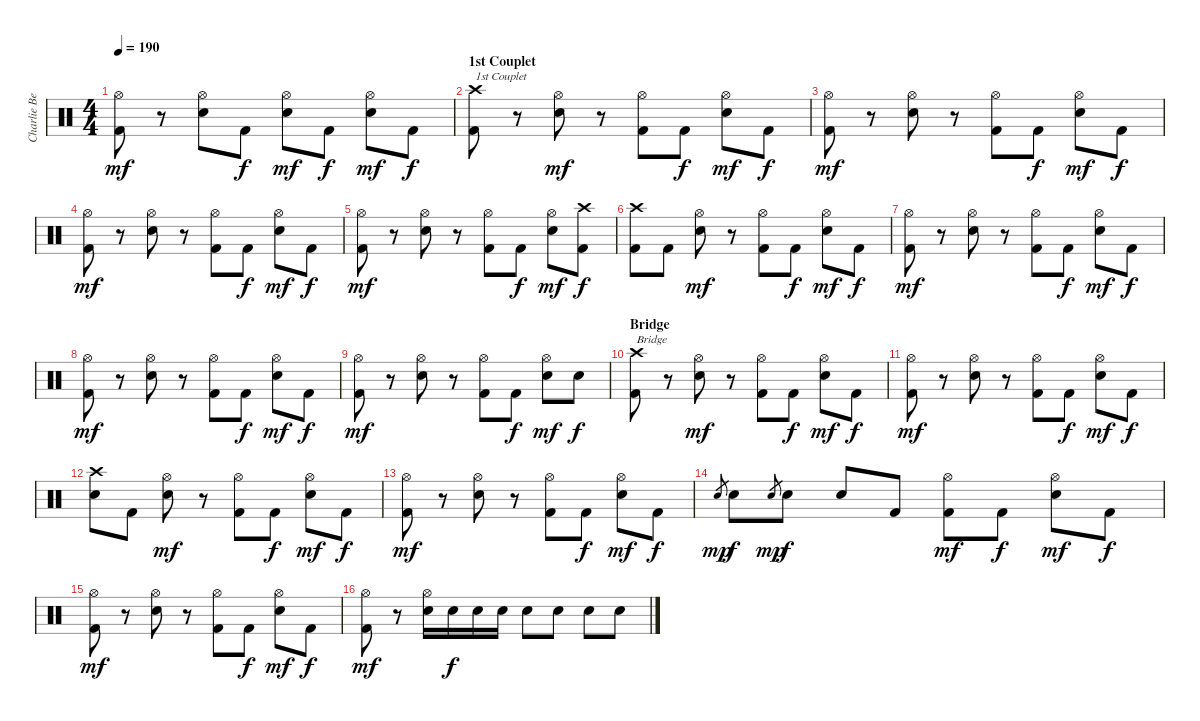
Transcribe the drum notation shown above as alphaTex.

\track ("Charlie Benante" "Charlie Be") {instrument percussion}
\staff {score}
\articulation defaults
\ts (4 4)
\tempo 190
\clef neutral
\ks c
("Hi-Hat (open)" "Kick (hit) 2").8{dy mf} r.8 ("Hi-Hat (open)" "Electric Snare (hit)").8 "Kick (hit) 2".8{dy f} ("Hi-Hat (open)" "Electric Snare (hit)").8{dy mf} "Kick (hit) 2".8{dy f} ("Hi-Hat (open)" "Electric Snare (hit)").8{dy mf} "Kick (hit) 2".8{dy f} |
\section ("" "1st Couplet")
("Crash high (hit)" "Kick (hit) 2").8{txt "1st Couplet"} r.8 ("Hi-Hat (open)" "Electric Snare (hit)").8{dy mf} r.8 ("Hi-Hat (open)" "Kick (hit) 2").8 "Kick (hit) 2".8{dy f} ("Hi-Hat (open)" "Electric Snare (hit)").8{dy mf} "Kick (hit) 2".8{dy f} |
("Hi-Hat (open)" "Kick (hit) 2").8{dy mf} r.8 ("Hi-Hat (open)" "Electric Snare (hit)").8 r.8 ("Hi-Hat (open)" "Kick (hit) 2").8 "Kick (hit) 2".8{dy f} ("Hi-Hat (open)" "Electric Snare (hit)").8{dy mf} "Kick (hit) 2".8{dy f} |
("Hi-Hat (open)" "Kick (hit) 2").8{dy mf} r.8 ("Hi-Hat (open)" "Electric Snare (hit)").8 r.8 ("Hi-Hat (open)" "Kick (hit) 2").8 "Kick (hit) 2".8{dy f} ("Hi-Hat (open)" "Electric Snare (hit)").8{dy mf} "Kick (hit) 2".8{dy f} |
("Hi-Hat (open)" "Kick (hit) 2").8{dy mf} r.8 ("Hi-Hat (open)" "Electric Snare (hit)").8 r.8 ("Hi-Hat (open)" "Kick (hit) 2").8 "Kick (hit) 2".8{dy f} ("Hi-Hat (open)" "Electric Snare (hit)").8{dy mf} ("Crash high (hit)" "Kick (hit) 2").8{dy f} |
("Crash high (hit)" "Kick (hit) 2").8 "Kick (hit) 2".8 ("Hi-Hat (open)" "Electric Snare (hit)").8{dy mf} r.8 ("Hi-Hat (open)" "Kick (hit) 2").8 "Kick (hit) 2".8{dy f} ("Hi-Hat (open)" "Electric Snare (hit)").8{dy mf} "Kick (hit) 2".8{dy f} |
("Hi-Hat (open)" "Kick (hit) 2").8{dy mf} r.8 ("Hi-Hat (open)" "Electric Snare (hit)").8 r.8 ("Hi-Hat (open)" "Kick (hit) 2").8 "Kick (hit) 2".8{dy f} ("Hi-Hat (open)" "Electric Snare (hit)").8{dy mf} "Kick (hit) 2".8{dy f} |
("Hi-Hat (open)" "Kick (hit) 2").8{dy mf} r.8 ("Hi-Hat (open)" "Electric Snare (hit)").8 r.8 ("Hi-Hat (open)" "Kick (hit) 2").8 "Kick (hit) 2".8{dy f} ("Hi-Hat (open)" "Electric Snare (hit)").8{dy mf} "Kick (hit) 2".8{dy f} |
("Hi-Hat (open)" "Kick (hit) 2").8{dy mf} r.8 ("Hi-Hat (open)" "Electric Snare (hit)").8 r.8 ("Hi-Hat (open)" "Kick (hit) 2").8 "Kick (hit) 2".8{dy f} ("Hi-Hat (open)" "Electric Snare (hit)").8{dy mf} "Snare (hit) 2".8{dy f} |
\section ("" "Bridge")
("Crash high (hit)" "Kick (hit) 2").8{txt "Bridge"} r.8 ("Hi-Hat (open)" "Electric Snare (hit)").8{dy mf} r.8 ("Hi-Hat (open)" "Kick (hit) 2").8 "Kick (hit) 2".8{dy f} ("Hi-Hat (open)" "Electric Snare (hit)").8{dy mf} "Kick (hit) 2".8{dy f} |
("Hi-Hat (open)" "Kick (hit) 2").8{dy mf} r.8 ("Hi-Hat (open)" "Electric Snare (hit)").8 r.8 ("Hi-Hat (open)" "Kick (hit) 2").8 "Kick (hit) 2".8{dy f} ("Hi-Hat (open)" "Electric Snare (hit)").8{dy mf} "Kick (hit) 2".8{dy f} |
("Crash high (hit)" "Electric Snare (hit)").8 "Kick (hit) 2".8 ("Hi-Hat (open)" "Electric Snare (hit)").8{dy mf} r.8 ("Hi-Hat (open)" "Kick (hit) 2").8 "Kick (hit) 2".8{dy f} ("Hi-Hat (open)" "Electric Snare (hit)").8{dy mf} "Kick (hit) 2".8{dy f} |
("Hi-Hat (open)" "Kick (hit) 2").8{dy mf} r.8 ("Hi-Hat (open)" "Electric Snare (hit)").8 r.8 ("Hi-Hat (open)" "Kick (hit) 2").8 "Kick (hit) 2".8{dy f} ("Hi-Hat (open)" "Electric Snare (hit)").8{dy mf} "Kick (hit) 2".8{dy f} |
"Snare (hit) 2".8{gr dy mp} "Electric Snare (hit)".8{dy f} "Snare (hit) 2".8{gr dy mp} "Electric Snare (hit)".8{dy f} "Electric Snare (hit)".8 "Kick (hit) 2".8 ("Hi-Hat (open)" "Kick (hit) 2").8{dy mf} "Kick (hit) 2".8{dy f} ("Hi-Hat (open)" "Electric Snare (hit)").8{dy mf} "Kick (hit) 2".8{dy f} |
("Hi-Hat (open)" "Kick (hit) 2").8{dy mf} r.8 ("Hi-Hat (open)" "Electric Snare (hit)").8 r.8 ("Hi-Hat (open)" "Kick (hit) 2").8 "Kick (hit) 2".8{dy f} ("Hi-Hat (open)" "Electric Snare (hit)").8{dy mf} "Kick (hit) 2".8{dy f} |
("Hi-Hat (open)" "Kick (hit) 2").8{dy mf} r.8 ("Hi-Hat (open)" "Electric Snare (hit)").16 "Electric Snare (hit)".16{dy f} "Electric Snare (hit)".16 "Electric Snare (hit)".16 "Electric Snare (hit)".8 "Electric Snare (hit)".8 "Electric Snare (hit)".8 "Electric Snare (hit)".8
